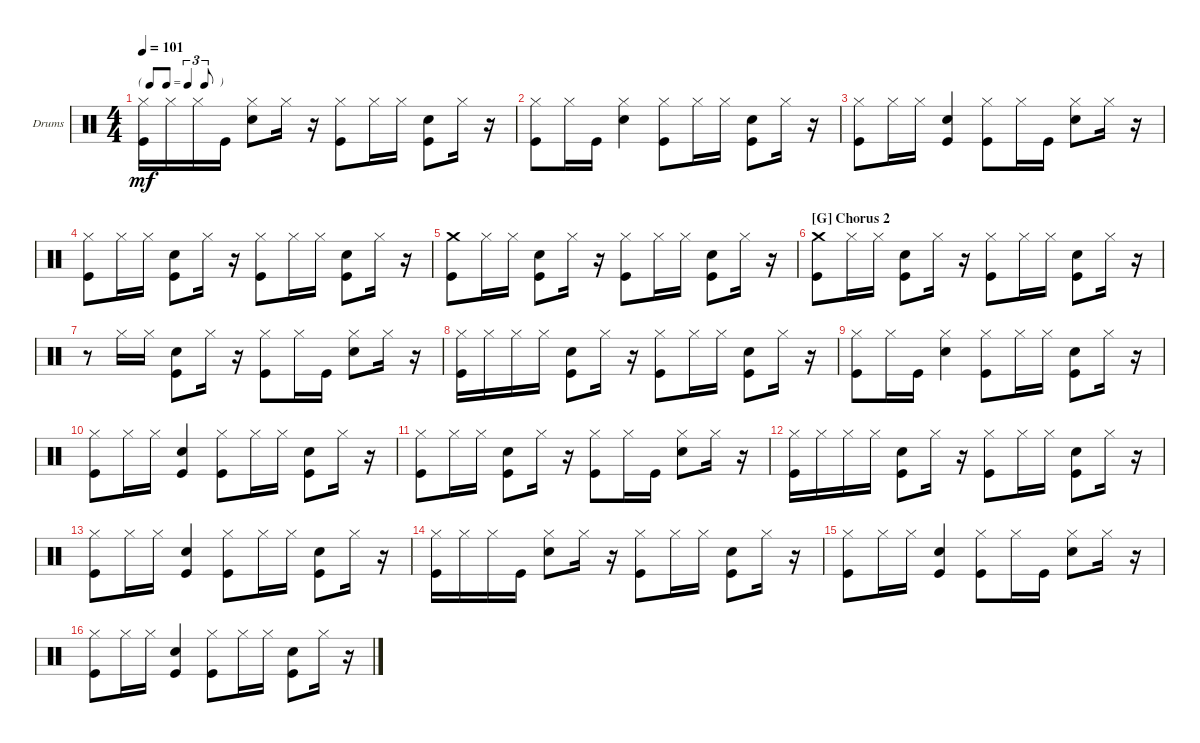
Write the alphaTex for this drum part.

\bracketExtendMode groupsimilarinstruments
\firstSystemTrackNameOrientation horizontal
\otherSystemsTrackNameOrientation horizontal
\track ("Charlie Watts" "Drums") {instrument percussion}
\staff {score}
\articulation defaults
\ts (4 4)
\tf triplet8th
\tempo 101
\clef neutral
\scale
0.333333
\ks c
("Hi-Hat (closed)" "Kick (hit)").16{dy mf} "Hi-Hat (closed)".16 "Hi-Hat (closed)".16 "Kick (hit)".16 ("Hi-Hat (closed)" "Snare (hit) 2").8 "Hi-Hat (closed)".16 r.16 ("Kick (hit)" "Hi-Hat (closed)").8 "Hi-Hat (closed)".16 "Hi-Hat (closed)".16 ("Kick (hit)" "Snare (hit) 2").8 "Hi-Hat (closed)".16 r.16 |
\scale
0.333333 ("Hi-Hat (closed)" "Kick (hit)").8 "Hi-Hat (closed)".16 "Kick (hit)".16 ("Hi-Hat (closed)" "Snare (hit) 2").4 ("Hi-Hat (closed)" "Kick (hit)").8 "Hi-Hat (closed)".16 "Hi-Hat (closed)".16 ("Kick (hit)" "Snare (hit) 2").8 "Hi-Hat (closed)".16 r.16 |
\scale
0.333333 ("Hi-Hat (closed)" "Kick (hit)").8 "Hi-Hat (closed)".16 "Hi-Hat (closed)".16 ("Kick (hit)" "Snare (hit) 2").4 ("Kick (hit)" "Hi-Hat (closed)").8 "Hi-Hat (closed)".16 "Kick (hit)".16 ("Hi-Hat (closed)" "Snare (hit) 2").8 "Hi-Hat (closed)".16 r.16 |
\scale
0.333333 ("Kick (hit)" "Hi-Hat (closed)").8 "Hi-Hat (closed)".16 "Hi-Hat (closed)".16 ("Kick (hit)" "Snare (hit) 2").8 "Hi-Hat (closed)".16 r.16 ("Kick (hit)" "Hi-Hat (closed)").8 "Hi-Hat (closed)".16 "Hi-Hat (closed)".16 ("Kick (hit)" "Snare (hit) 2").8 "Hi-Hat (closed)".16 r.16 |
\scale
0.333333 ("Kick (hit)" "Crash medium (hit)").8 "Hi-Hat (closed)".16 "Hi-Hat (closed)".16 ("Kick (hit)" "Snare (hit) 2").8 "Hi-Hat (closed)".16 r.16 ("Kick (hit)" "Hi-Hat (closed)").8 "Hi-Hat (closed)".16 "Hi-Hat (closed)".16 ("Kick (hit)" "Snare (hit) 2").8 "Hi-Hat (closed)".16 r.16 |
\section ("G" "Chorus 2")
\scale
0.333333 ("Kick (hit)" "Crash medium (hit)").8 "Hi-Hat (closed)".16 "Hi-Hat (closed)".16 ("Kick (hit)" "Snare (hit) 2").8 "Hi-Hat (closed)".16 r.16 ("Kick (hit)" "Hi-Hat (closed)").8 "Hi-Hat (closed)".16 "Hi-Hat (closed)".16 ("Kick (hit)" "Snare (hit) 2").8 "Hi-Hat (closed)".16 r.16 |
\scale
0.333333 r.8 "Hi-Hat (closed)".16 "Hi-Hat (closed)".16 ("Kick (hit)" "Snare (hit) 2").8 "Hi-Hat (closed)".16 r.16 ("Kick (hit)" "Hi-Hat (closed)").8 "Hi-Hat (closed)".16 "Kick (hit)".16 ("Hi-Hat (closed)" "Snare (hit) 2").8 "Hi-Hat (closed)".16 r.16 |
\scale
0.333333 ("Hi-Hat (closed)" "Kick (hit)").16 "Hi-Hat (closed)".16 "Hi-Hat (closed)".16 "Hi-Hat (closed)".16 ("Kick (hit)" "Snare (hit) 2").8 "Hi-Hat (closed)".16 r.16 ("Kick (hit)" "Hi-Hat (closed)").8 "Hi-Hat (closed)".16 "Hi-Hat (closed)".16 ("Kick (hit)" "Snare (hit) 2").8 "Hi-Hat (closed)".16 r.16 |
\scale
0.333333 ("Hi-Hat (closed)" "Kick (hit)").8 "Hi-Hat (closed)".16 "Kick (hit)".16 ("Hi-Hat (closed)" "Snare (hit) 2").4 ("Hi-Hat (closed)" "Kick (hit)").8 "Hi-Hat (closed)".16 "Hi-Hat (closed)".16 ("Kick (hit)" "Snare (hit) 2").8 "Hi-Hat (closed)".16 r.16 |
\scale
0.333333 ("Hi-Hat (closed)" "Kick (hit)").8 "Hi-Hat (closed)".16 "Hi-Hat (closed)".16 ("Kick (hit)" "Snare (hit) 2").4 ("Hi-Hat (closed)" "Kick (hit)").8 "Hi-Hat (closed)".16 "Hi-Hat (closed)".16 ("Kick (hit)" "Snare (hit) 2").8 "Hi-Hat (closed)".16 r.16 |
\scale
0.333333 ("Kick (hit)" "Hi-Hat (closed)").8 "Hi-Hat (closed)".16 "Hi-Hat (closed)".16 ("Kick (hit)" "Snare (hit) 2").8 "Hi-Hat (closed)".16 r.16 ("Hi-Hat (closed)" "Kick (hit)").8 "Hi-Hat (closed)".16 "Kick (hit)".16 ("Hi-Hat (closed)" "Snare (hit) 2").8 "Hi-Hat (closed)".16 r.16 |
\scale
0.333333 ("Kick (hit)" "Hi-Hat (closed)").16 "Hi-Hat (closed)".16 "Hi-Hat (closed)".16 "Hi-Hat (closed)".16 ("Kick (hit)" "Snare (hit) 2").8 "Hi-Hat (closed)".16 r.16 ("Kick (hit)" "Hi-Hat (closed)").8 "Hi-Hat (closed)".16 "Hi-Hat (closed)".16 ("Kick (hit)" "Snare (hit) 2").8 "Hi-Hat (closed)".16 r.16 |
\scale
0.333333 ("Hi-Hat (closed)" "Kick (hit)").8 "Hi-Hat (closed)".16 "Hi-Hat (closed)".16 ("Kick (hit)" "Snare (hit) 2").4 ("Hi-Hat (closed)" "Kick (hit)").8 "Hi-Hat (closed)".16 "Hi-Hat (closed)".16 ("Kick (hit)" "Snare (hit) 2").8 "Hi-Hat (closed)".16 r.16 |
\scale
0.333333 ("Kick (hit)" "Hi-Hat (closed)").16 "Hi-Hat (closed)".16 "Hi-Hat (closed)".16 "Kick (hit)".16 ("Hi-Hat (closed)" "Snare (hit) 2").8 "Hi-Hat (closed)".16 r.16 ("Hi-Hat (closed)" "Kick (hit)").8 "Hi-Hat (closed)".16 "Hi-Hat (closed)".16 ("Kick (hit)" "Snare (hit) 2").8 "Hi-Hat (closed)".16 r.16 |
\scale
0.333333 ("Kick (hit)" "Hi-Hat (closed)").8 "Hi-Hat (closed)".16 "Hi-Hat (closed)".16 ("Kick (hit)" "Snare (hit) 2").4 ("Kick (hit)" "Hi-Hat (closed)").8 "Hi-Hat (closed)".16 "Kick (hit)".16 ("Hi-Hat (closed)" "Snare (hit) 2").8 "Hi-Hat (closed)".16 r.16 |
\scale
0.333333 ("Hi-Hat (closed)" "Kick (hit)").8 "Hi-Hat (closed)".16 "Hi-Hat (closed)".16 ("Kick (hit)" "Snare (hit) 2").4 ("Hi-Hat (closed)" "Kick (hit)").8 "Hi-Hat (closed)".16 "Hi-Hat (closed)".16 ("Kick (hit)" "Snare (hit) 2").8 "Hi-Hat (closed)".16 r.16
